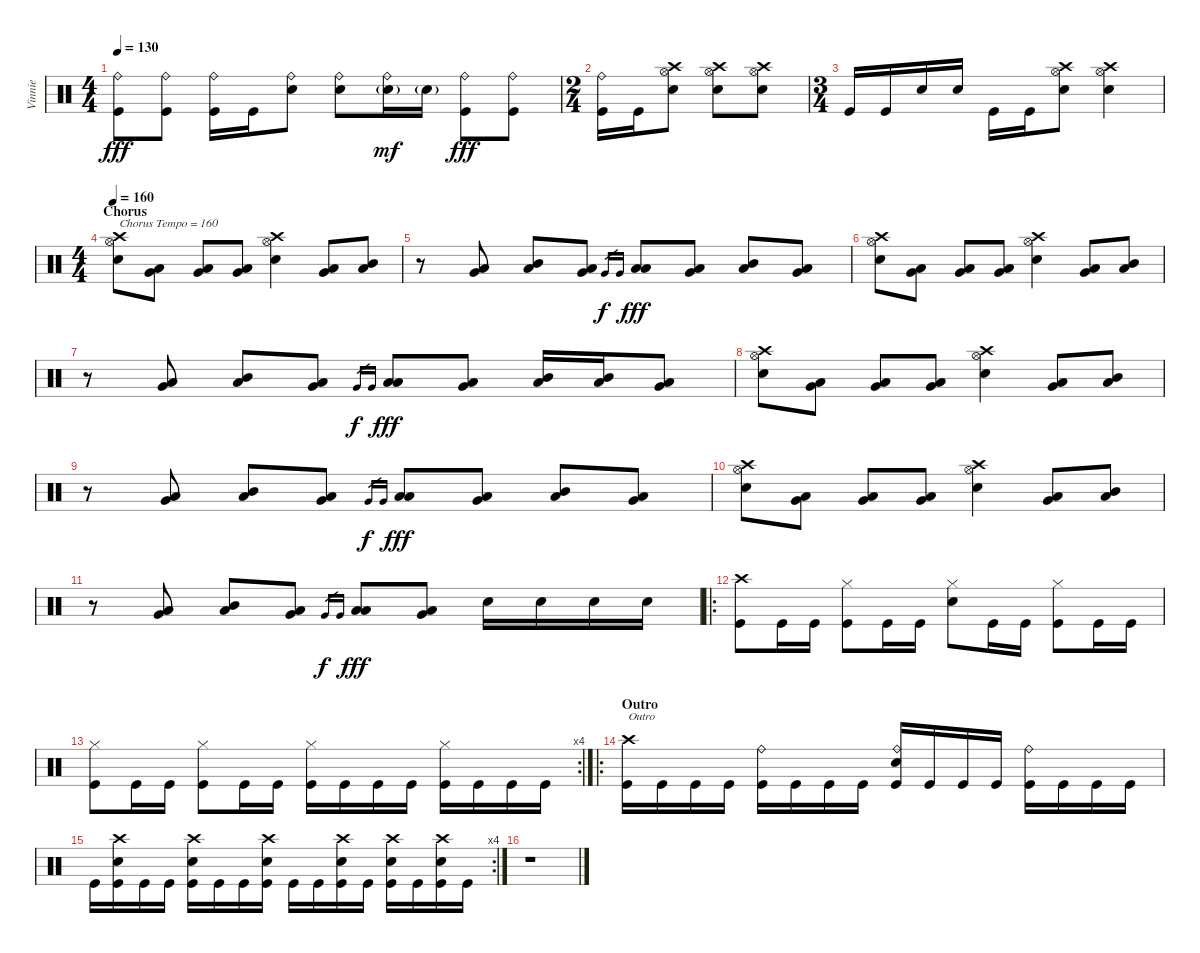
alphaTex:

\track ("Vinnie" "Vinnie") {instrument percussion}
\staff {score}
\articulation defaults
\ts (4 4)
\tempo 130
\clef neutral
\ks c
("Kick (hit)" "Ride (bell)").8{dy fff} ("Kick (hit)" "Ride (bell)").8 ("Kick (hit)" "Ride (bell)").16 "Kick (hit)".16 ("Electric Snare (hit)" "Ride (bell)").8 ("Electric Snare (hit)" "Ride (bell)").8 ("Electric Snare (hit)"{g} "Ride (bell)").16{dy mf} "Electric Snare (hit)"{g}.16 ("Kick (hit)" "Ride (bell)").8{dy fff} ("Kick (hit)" "Ride (bell)").8 |
\ts (2 4)
("Kick (hit)" "Ride (bell)").16 "Kick (hit)".16 ("Electric Snare (hit)" "Crash high (hit)" "Hi-Hat (open)").8 ("Electric Snare (hit)" "Crash high (hit)" "Hi-Hat (open)").8 ("Electric Snare (hit)" "Crash high (hit)" "Hi-Hat (open)").8 |
\ts (3 4)
"Kick (hit)".16 "Kick (hit)".16 "Electric Snare (hit)".16 "Electric Snare (hit)".16 "Kick (hit)".16 "Kick (hit)".16 ("Electric Snare (hit)" "Crash high (hit)" "Hi-Hat (open)").8 ("Electric Snare (hit)" "Crash high (hit)" "Hi-Hat (open)").4 |
\ts (4 4)
\section ("" "Chorus")
\tempo 160
("Electric Snare (hit)" "Crash high (hit)" "Hi-Hat (open)").8{txt "Chorus Tempo = 160"} ("Low Tom (hit)" "Very Low Tom (hit)").8 ("Low Tom (hit)" "Very Low Tom (hit)").8 ("Low Tom (hit)" "Very Low Tom (hit)").8 ("Electric Snare (hit)" "Crash high (hit)" "Hi-Hat (open)").4 ("Low Tom (hit)" "Very Low Tom (hit)").8 ("Mid Tom (hit)" "Low Tom (hit)").8 |
r.8 ("Low Tom (hit)" "Very Low Tom (hit)").8 ("Mid Tom (hit)" "Low Tom (hit)").8 ("Low Tom (hit)" "Very Low Tom (hit)").8 "Very Low Tom (hit)".16{gr dy f} "Very Low Tom (hit)".16{gr} ("Low Tom (hit)" "Low Tom (hit)").8{dy fff} ("Low Tom (hit)" "Very Low Tom (hit)").8 ("Mid Tom (hit)" "Low Tom (hit)").8 ("Low Tom (hit)" "Very Low Tom (hit)").8 |
("Electric Snare (hit)" "Crash high (hit)" "Hi-Hat (open)").8 ("Low Tom (hit)" "Very Low Tom (hit)").8 ("Low Tom (hit)" "Very Low Tom (hit)").8 ("Low Tom (hit)" "Very Low Tom (hit)").8 ("Electric Snare (hit)" "Crash high (hit)" "Hi-Hat (open)").4 ("Low Tom (hit)" "Very Low Tom (hit)").8 ("Mid Tom (hit)" "Low Tom (hit)").8 |
r.8 ("Low Tom (hit)" "Very Low Tom (hit)").8 ("Mid Tom (hit)" "Low Tom (hit)").8 ("Low Tom (hit)" "Very Low Tom (hit)").8 "Very Low Tom (hit)".16{gr dy f} "Very Low Tom (hit)".16{gr} ("Low Tom (hit)" "Low Tom (hit)").8{dy fff} ("Low Tom (hit)" "Very Low Tom (hit)").8 ("Mid Tom (hit)" "Low Tom (hit)").16 ("Mid Tom (hit)" "Low Tom (hit)").16 ("Low Tom (hit)" "Very Low Tom (hit)").8 |
("Electric Snare (hit)" "Crash high (hit)" "Hi-Hat (open)").8 ("Low Tom (hit)" "Very Low Tom (hit)").8 ("Low Tom (hit)" "Very Low Tom (hit)").8 ("Low Tom (hit)" "Very Low Tom (hit)").8 ("Electric Snare (hit)" "Crash high (hit)" "Hi-Hat (open)").4 ("Low Tom (hit)" "Very Low Tom (hit)").8 ("Mid Tom (hit)" "Low Tom (hit)").8 |
r.8 ("Low Tom (hit)" "Very Low Tom (hit)").8 ("Mid Tom (hit)" "Low Tom (hit)").8 ("Low Tom (hit)" "Very Low Tom (hit)").8 "Very Low Tom (hit)".16{gr dy f} "Very Low Tom (hit)".16{gr} ("Low Tom (hit)" "Low Tom (hit)").8{dy fff} ("Low Tom (hit)" "Very Low Tom (hit)").8 ("Mid Tom (hit)" "Low Tom (hit)").8 ("Low Tom (hit)" "Very Low Tom (hit)").8 |
("Electric Snare (hit)" "Crash high (hit)" "Hi-Hat (open)").8 ("Low Tom (hit)" "Very Low Tom (hit)").8 ("Low Tom (hit)" "Very Low Tom (hit)").8 ("Low Tom (hit)" "Very Low Tom (hit)").8 ("Electric Snare (hit)" "Crash high (hit)" "Hi-Hat (open)").4 ("Low Tom (hit)" "Very Low Tom (hit)").8 ("Mid Tom (hit)" "Low Tom (hit)").8 |
r.8 ("Low Tom (hit)" "Very Low Tom (hit)").8 ("Mid Tom (hit)" "Low Tom (hit)").8 ("Low Tom (hit)" "Very Low Tom (hit)").8 "Very Low Tom (hit)".16{gr dy f} "Very Low Tom (hit)".16{gr} ("Low Tom (hit)" "Low Tom (hit)").8{dy fff} ("Low Tom (hit)" "Very Low Tom (hit)").8 "Electric Snare (hit)".16 "Electric Snare (hit)".16 "Electric Snare (hit)".16 "Electric Snare (hit)".16 |
\ro
("Kick (hit)" "Crash high (hit)").8 "Kick (hit)".16 "Kick (hit)".16 ("Kick (hit)" "Hi-Hat (closed)").8 "Kick (hit)".16 "Kick (hit)".16 ("Electric Snare (hit)" "Hi-Hat (closed)").8 "Kick (hit)".16 "Kick (hit)".16 ("Kick (hit)" "Hi-Hat (closed)").8 "Kick (hit)".16 "Kick (hit)".16 |
\rc 4
("Kick (hit)" "Hi-Hat (closed)").8 "Kick (hit)".16 "Kick (hit)".16 ("Kick (hit)" "Hi-Hat (closed)").8 "Kick (hit)".16 "Kick (hit)".16 ("Kick (hit)" "Hi-Hat (closed)").16 "Kick (hit)".16 "Kick (hit)".16 "Kick (hit)".16 ("Kick (hit)" "Hi-Hat (closed)").16 "Kick (hit)".16 "Kick (hit)".16 "Kick (hit)".16 |
\ro
\section ("" "Outro")
("Kick (hit)" "Crash high (hit)").16{txt "Outro"} "Kick (hit)".16 "Kick (hit)".16 "Kick (hit)".16 ("Kick (hit)" "Ride (bell)").16 "Kick (hit)".16 "Kick (hit)".16 "Kick (hit)".16 ("Electric Snare (hit)" "Kick (hit)" "Ride (bell)").16 "Kick (hit)".16 "Kick (hit)".16 "Kick (hit)".16 ("Kick (hit)" "Ride (bell)").16 "Kick (hit)".16 "Kick (hit)".16 "Kick (hit)".16 |
\rc 4 "Kick (hit)".16
("Electric Snare (hit)" "Kick (hit)" "Crash high (hit)").16 "Kick (hit)".16 "Kick (hit)".16 ("Electric Snare (hit)" "Kick (hit)" "Crash high (hit)").16 "Kick (hit)".16 "Kick (hit)".16 ("Electric Snare (hit)" "Kick (hit)" "Crash high (hit)").16 "Kick (hit)".16 "Kick (hit)".16 ("Electric Snare (hit)" "Kick (hit)" "Crash high (hit)").16 "Kick (hit)".16 ("Electric Snare (hit)" "Kick (hit)" "Crash high (hit)").16 "Kick (hit)".16 ("Electric Snare (hit)" "Kick (hit)" "Crash high (hit)").16 "Kick (hit)".16 |
r.1
